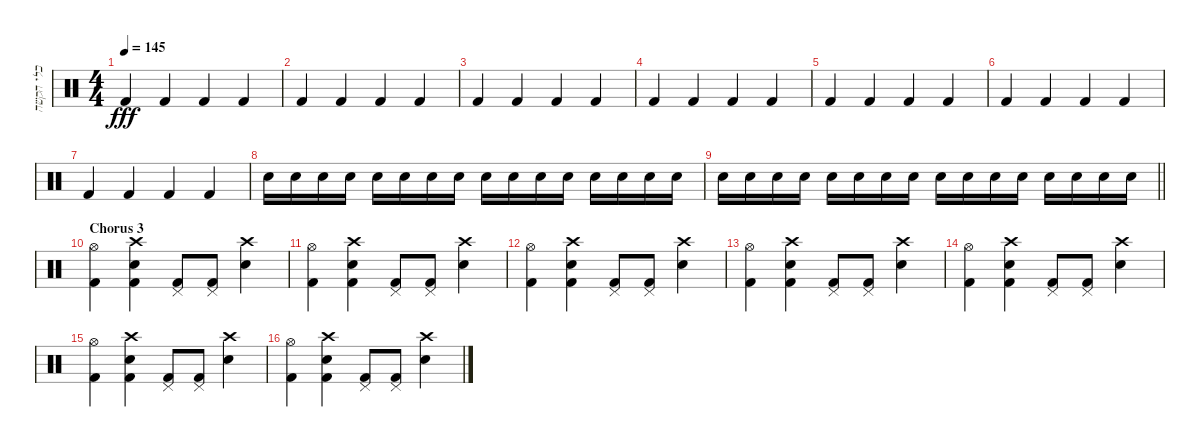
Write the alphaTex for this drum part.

\track ("כלי הקשה" "כלי הקשה") {instrument percussion bank 127}
\staff {score}
\articulation defaults
\ts (4 4)
\tempo 145
\clef neutral
\ks c "Kick (hit) 2".4{dy fff} "Kick (hit) 2".4 "Kick (hit) 2".4 "Kick (hit) 2".4
|
"Kick (hit) 2".4{volume 12} "Kick (hit) 2".4 "Kick (hit) 2".4 "Kick (hit) 2".4 |
"Kick (hit) 2".4 "Kick (hit) 2".4 "Kick (hit) 2".4 "Kick (hit) 2".4 |
"Kick (hit) 2".4 "Kick (hit) 2".4 "Kick (hit) 2".4 "Kick (hit) 2".4 |
"Kick (hit) 2".4 "Kick (hit) 2".4 "Kick (hit) 2".4 "Kick (hit) 2".4 |
"Kick (hit) 2".4{volume 12} "Kick (hit) 2".4 "Kick (hit) 2".4 "Kick (hit) 2".4 |
"Kick (hit) 2".4 "Kick (hit) 2".4 "Kick (hit) 2".4 "Kick (hit) 2".4 |
"Snare (hit) 2".16 "Snare (hit) 2".16 "Snare (hit) 2".16 "Snare (hit) 2".16 "Snare (hit) 2".16 "Snare (hit) 2".16 "Snare (hit) 2".16 "Snare (hit) 2".16 "Snare (hit) 2".16 "Snare (hit) 2".16 "Snare (hit) 2".16 "Snare (hit) 2".16 "Snare (hit) 2".16 "Snare (hit) 2".16 "Snare (hit) 2".16 "Snare (hit) 2".16 |
\barLineRight lightlight "Snare (hit) 2".16 "Snare (hit) 2".16 "Snare (hit) 2".16 "Snare (hit) 2".16 "Snare (hit) 2".16 "Snare (hit) 2".16 "Snare (hit) 2".16 "Snare (hit) 2".16 "Snare (hit) 2".16 "Snare (hit) 2".16 "Snare (hit) 2".16 "Snare (hit) 2".16 "Snare (hit) 2".16 "Snare (hit) 2".16 "Snare (hit) 2".16 "Snare (hit) 2".16
|
\section ("" "Chorus 3")
("Hi-Hat (open)" "Kick (hit) 2").4{volume 12} ("Crash high (hit)" "Snare (hit) 2" "Kick (hit) 2").4 ("Pedal Hi-Hat (hit)" "Kick (hit) 2").8 ("Pedal Hi-Hat (hit)" "Kick (hit) 2").8 ("Crash high (hit)" "Snare (hit) 2").4 |
("Hi-Hat (open)" "Kick (hit) 2").4 ("Crash high (hit)" "Snare (hit) 2" "Kick (hit) 2").4 ("Pedal Hi-Hat (hit)" "Kick (hit) 2").8 ("Pedal Hi-Hat (hit)" "Kick (hit) 2").8 ("Crash high (hit)" "Snare (hit) 2").4 |
("Hi-Hat (open)" "Kick (hit) 2").4 ("Crash high (hit)" "Snare (hit) 2" "Kick (hit) 2").4 ("Pedal Hi-Hat (hit)" "Kick (hit) 2").8 ("Pedal Hi-Hat (hit)" "Kick (hit) 2").8 ("Crash high (hit)" "Snare (hit) 2").4 |
("Hi-Hat (open)" "Kick (hit) 2").4 ("Crash high (hit)" "Snare (hit) 2" "Kick (hit) 2").4 ("Pedal Hi-Hat (hit)" "Kick (hit) 2").8 ("Pedal Hi-Hat (hit)" "Kick (hit) 2").8 ("Crash high (hit)" "Snare (hit) 2").4 |
("Hi-Hat (open)" "Kick (hit) 2").4 ("Crash high (hit)" "Snare (hit) 2" "Kick (hit) 2").4 ("Pedal Hi-Hat (hit)" "Kick (hit) 2").8 ("Pedal Hi-Hat (hit)" "Kick (hit) 2").8 ("Crash high (hit)" "Snare (hit) 2").4 |
("Hi-Hat (open)" "Kick (hit) 2").4 ("Crash high (hit)" "Snare (hit) 2" "Kick (hit) 2").4 ("Pedal Hi-Hat (hit)" "Kick (hit) 2").8 ("Pedal Hi-Hat (hit)" "Kick (hit) 2").8 ("Crash high (hit)" "Snare (hit) 2").4 |
("Hi-Hat (open)" "Kick (hit) 2").4 ("Crash high (hit)" "Snare (hit) 2" "Kick (hit) 2").4 ("Pedal Hi-Hat (hit)" "Kick (hit) 2").8 ("Pedal Hi-Hat (hit)" "Kick (hit) 2").8 ("Crash high (hit)" "Snare (hit) 2").4
